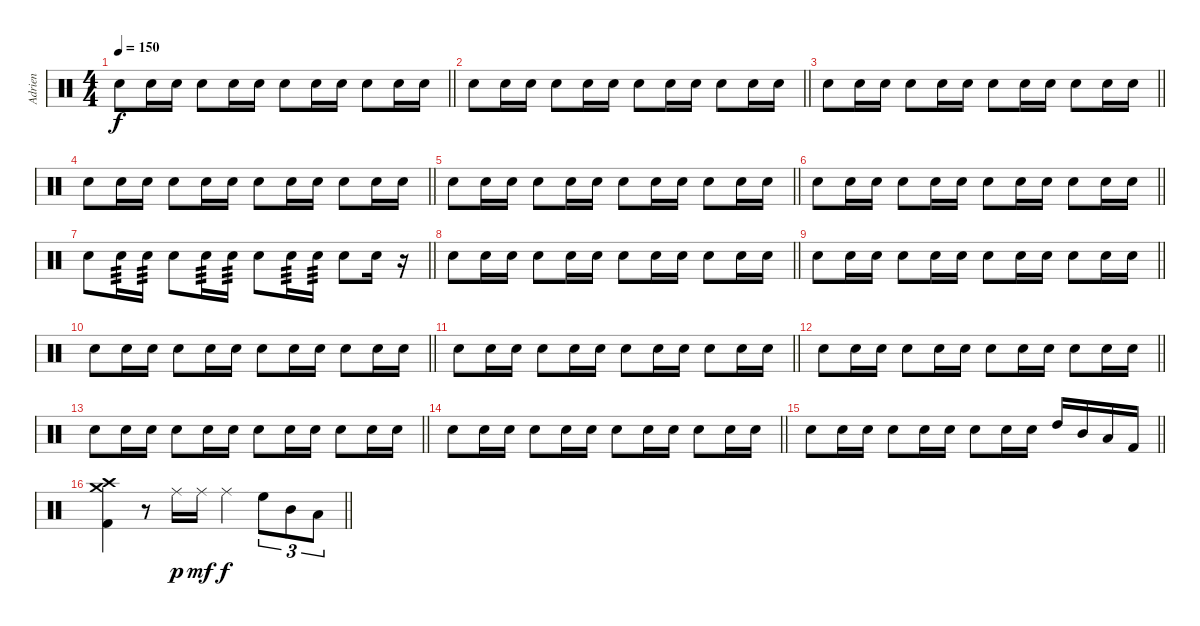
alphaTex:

\track ("Adrien" "Adrien") {instrument percussion}
\staff {score}
\articulation defaults
\ts (4 4)
\tempo 150
\clef neutral
\barLineRight lightlight
\ks c "Snare (hit) 2".8{dy f} "Electric Snare (hit)".16 "Electric Snare (hit)".16 "Snare (hit) 2".8 "Electric Snare (hit)".16 "Electric Snare (hit)".16 "Snare (hit) 2".8 "Electric Snare (hit)".16 "Electric Snare (hit)".16 "Snare (hit) 2".8 "Electric Snare (hit)".16 "Electric Snare (hit)".16
|
\barLineRight lightlight "Snare (hit) 2".8 "Electric Snare (hit)".16 "Electric Snare (hit)".16 "Snare (hit) 2".8 "Electric Snare (hit)".16 "Electric Snare (hit)".16 "Snare (hit) 2".8 "Electric Snare (hit)".16 "Electric Snare (hit)".16 "Snare (hit) 2".8 "Electric Snare (hit)".16 "Electric Snare (hit)".16
|
\barLineRight lightlight "Snare (hit) 2".8 "Electric Snare (hit)".16 "Electric Snare (hit)".16 "Snare (hit) 2".8 "Electric Snare (hit)".16 "Electric Snare (hit)".16 "Snare (hit) 2".8 "Electric Snare (hit)".16 "Electric Snare (hit)".16 "Snare (hit) 2".8 "Electric Snare (hit)".16 "Electric Snare (hit)".16
|
\barLineRight lightlight "Snare (hit) 2".8 "Electric Snare (hit)".16 "Electric Snare (hit)".16 "Snare (hit) 2".8 "Electric Snare (hit)".16 "Electric Snare (hit)".16 "Snare (hit) 2".8 "Electric Snare (hit)".16 "Electric Snare (hit)".16 "Snare (hit) 2".8 "Electric Snare (hit)".16 "Electric Snare (hit)".16
|
\barLineRight lightlight "Snare (hit) 2".8 "Electric Snare (hit)".16 "Electric Snare (hit)".16 "Snare (hit) 2".8 "Electric Snare (hit)".16 "Electric Snare (hit)".16 "Snare (hit) 2".8 "Electric Snare (hit)".16 "Electric Snare (hit)".16 "Snare (hit) 2".8 "Electric Snare (hit)".16 "Electric Snare (hit)".16
|
\barLineRight lightlight "Snare (hit) 2".8 "Electric Snare (hit)".16 "Electric Snare (hit)".16 "Snare (hit) 2".8 "Electric Snare (hit)".16 "Electric Snare (hit)".16 "Snare (hit) 2".8 "Electric Snare (hit)".16 "Electric Snare (hit)".16 "Snare (hit) 2".8 "Electric Snare (hit)".16 "Electric Snare (hit)".16
|
\barLineRight lightlight "Snare (hit) 2".8 "Electric Snare (hit)".16{tp 3} "Electric Snare (hit)".16{tp 3} "Snare (hit) 2".8 "Electric Snare (hit)".16{tp 3} "Electric Snare (hit)".16{tp 3} "Snare (hit) 2".8 "Electric Snare (hit)".16{tp 3} "Electric Snare (hit)".16{tp 3} "Snare (hit) 2".8 "Electric Snare (hit)".16
r.16 |
\barLineRight lightlight "Snare (hit) 2".8 "Electric Snare (hit)".16 "Electric Snare (hit)".16 "Snare (hit) 2".8 "Electric Snare (hit)".16 "Electric Snare (hit)".16 "Snare (hit) 2".8 "Electric Snare (hit)".16 "Electric Snare (hit)".16 "Snare (hit) 2".8 "Electric Snare (hit)".16 "Electric Snare (hit)".16
|
\barLineRight lightlight "Snare (hit) 2".8 "Electric Snare (hit)".16 "Electric Snare (hit)".16 "Snare (hit) 2".8 "Electric Snare (hit)".16 "Electric Snare (hit)".16 "Snare (hit) 2".8 "Electric Snare (hit)".16 "Electric Snare (hit)".16 "Snare (hit) 2".8 "Electric Snare (hit)".16 "Electric Snare (hit)".16
|
\barLineRight lightlight "Snare (hit) 2".8 "Electric Snare (hit)".16 "Electric Snare (hit)".16 "Snare (hit) 2".8 "Electric Snare (hit)".16 "Electric Snare (hit)".16 "Snare (hit) 2".8 "Electric Snare (hit)".16 "Electric Snare (hit)".16 "Snare (hit) 2".8 "Electric Snare (hit)".16 "Electric Snare (hit)".16
|
\barLineRight lightlight "Snare (hit) 2".8 "Electric Snare (hit)".16 "Electric Snare (hit)".16 "Snare (hit) 2".8 "Electric Snare (hit)".16 "Electric Snare (hit)".16 "Snare (hit) 2".8 "Electric Snare (hit)".16 "Electric Snare (hit)".16 "Snare (hit) 2".8 "Electric Snare (hit)".16 "Electric Snare (hit)".16
|
\barLineRight lightlight "Snare (hit) 2".8 "Electric Snare (hit)".16 "Electric Snare (hit)".16 "Snare (hit) 2".8 "Electric Snare (hit)".16 "Electric Snare (hit)".16 "Snare (hit) 2".8 "Electric Snare (hit)".16 "Electric Snare (hit)".16 "Snare (hit) 2".8 "Electric Snare (hit)".16 "Electric Snare (hit)".16
|
\barLineRight lightlight "Snare (hit) 2".8 "Electric Snare (hit)".16 "Electric Snare (hit)".16 "Snare (hit) 2".8 "Electric Snare (hit)".16 "Electric Snare (hit)".16 "Snare (hit) 2".8 "Electric Snare (hit)".16 "Electric Snare (hit)".16 "Snare (hit) 2".8 "Electric Snare (hit)".16 "Electric Snare (hit)".16
|
\barLineRight lightlight "Snare (hit) 2".8 "Electric Snare (hit)".16 "Electric Snare (hit)".16 "Snare (hit) 2".8 "Electric Snare (hit)".16 "Electric Snare (hit)".16 "Snare (hit) 2".8 "Electric Snare (hit)".16 "Electric Snare (hit)".16 "Snare (hit) 2".8 "Electric Snare (hit)".16 "Electric Snare (hit)".16
|
\barLineRight lightlight "Snare (hit) 2".8 "Electric Snare (hit)".16 "Electric Snare (hit)".16 "Snare (hit) 2".8 "Electric Snare (hit)".16 "Electric Snare (hit)".16 "Snare (hit) 2".8 "Electric Snare (hit)".16 "Electric Snare (hit)".16 "High Tom (hit)".16 "Mid Tom (hit)".16 "Low Tom (hit)".16 "Kick (hit) 2".16
|
\barLineRight lightlight
("Crash medium (hit)" "Crash high (hit)" "Kick (hit) 2").4 r.8 "Ride (middle)".16{dy p} "Ride (middle)".16{dy mf} "Ride (middle)".4{dy f} "High Floor Tom (hit)".8{tu (3 2)} "Mid Tom (hit)".8{tu (3 2)} "Low Tom (hit)".8{tu (3 2)}
